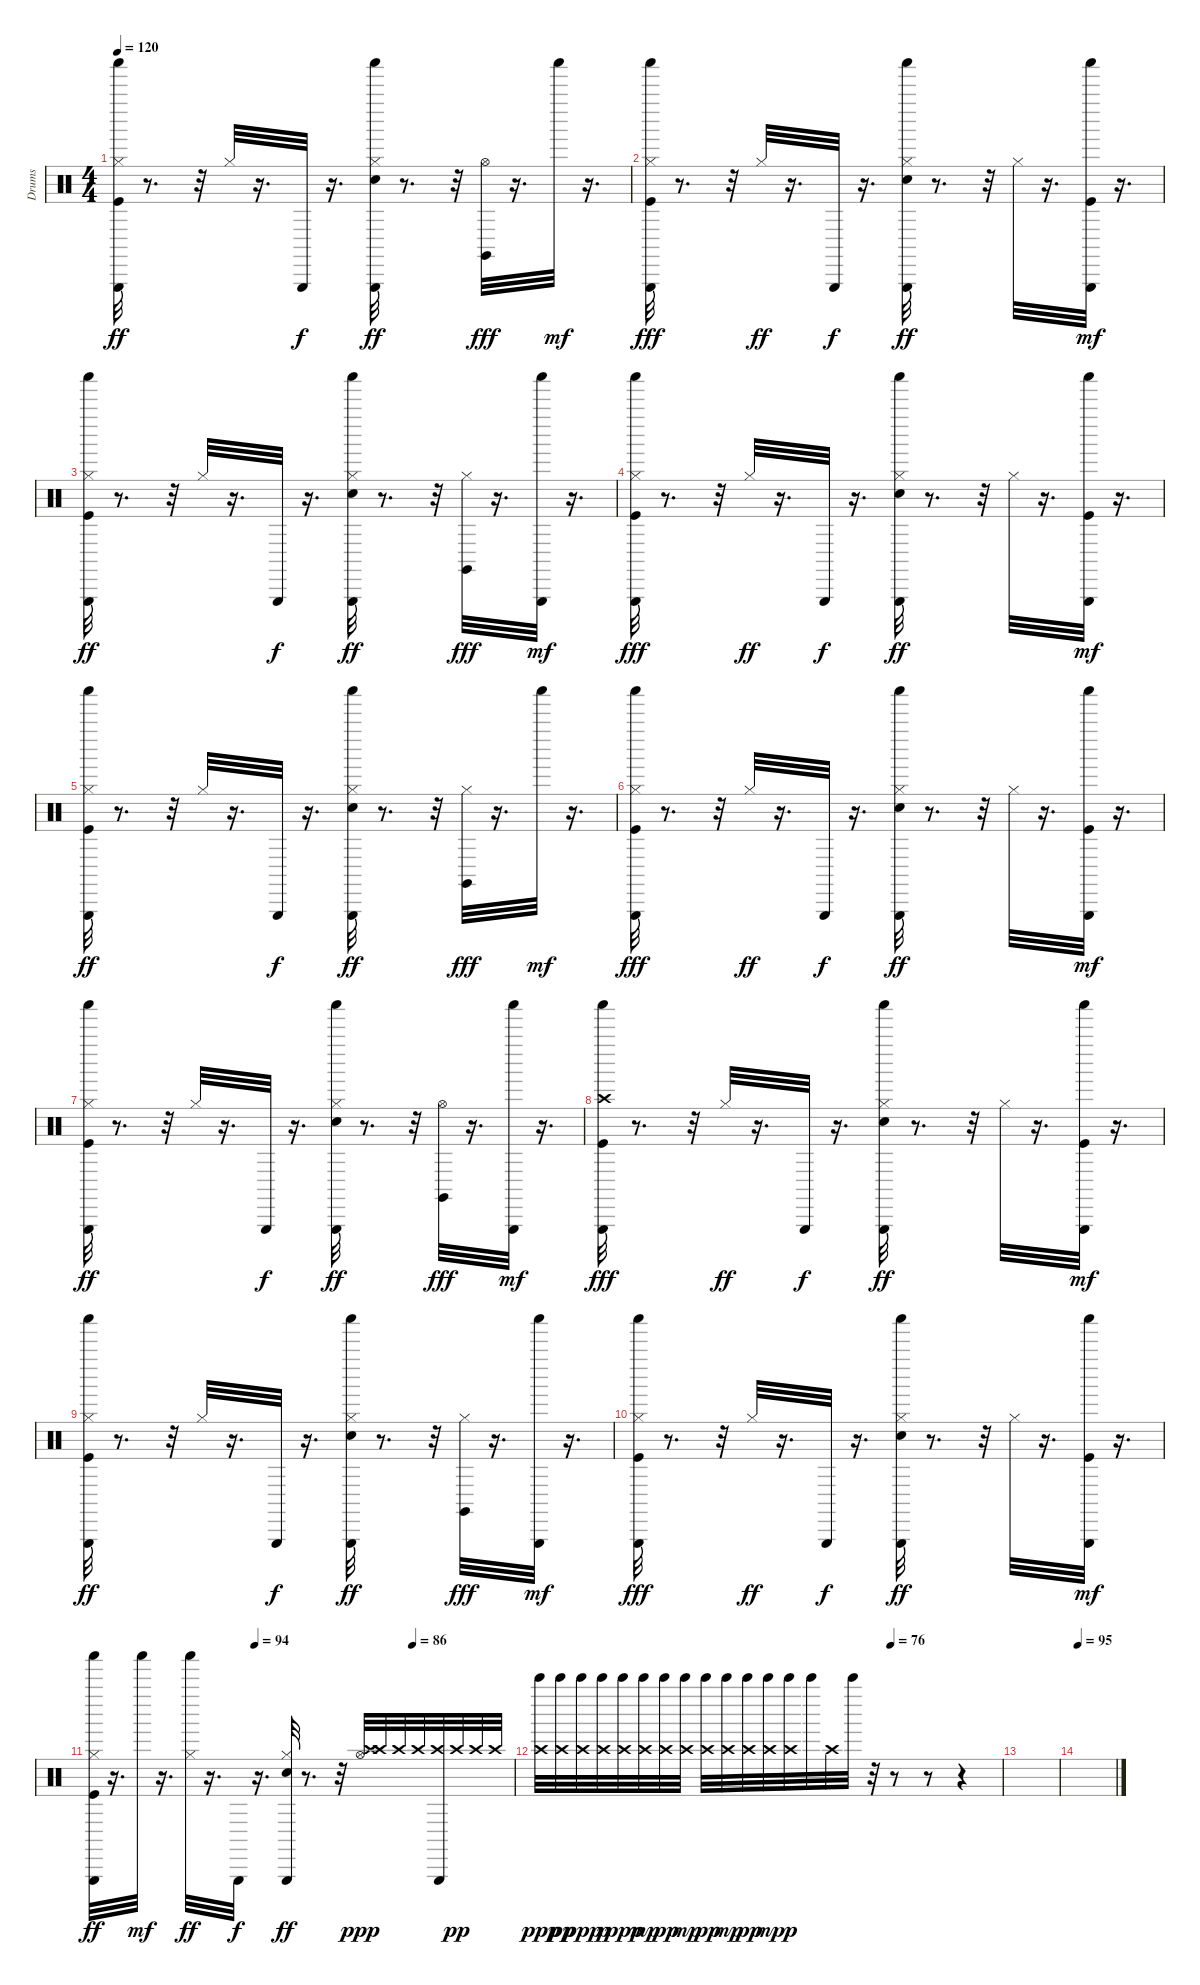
\track ("Drums" "Drums") {instrument percussion}
\staff {score}
\articulation defaults
\ts (4 4)
\tempo 120
\clef neutral
\ks c
("Shaker (hit)" "Triangle (hit)" "Kick (hit)" "Hi-Hat (closed)").32{dy ff} r.8{d} r.32 "Hi-Hat (closed)".32 r.16{d} "Triangle (hit)".32{dy f} r.16{d} ("Shaker (hit)" "Triangle (hit)" "Electric Snare (hit)" "Hi-Hat (closed)").32{dy ff} r.8{d} r.32 ("Hi-Hat (open)" "Claves (hit)").32{dy fff} r.16{d} "Shaker (hit)".32{dy mf} r.16{d} |
("Shaker (hit)" "Triangle (hit)" "Hi-Hat (closed)" "Kick (hit)").32{dy fff} r.8{d} r.32 "Hi-Hat (closed)".32{dy ff} r.16{d} "Triangle (hit)".32{dy f} r.16{d} ("Shaker (hit)" "Triangle (hit)" "Electric Snare (hit)" "Hi-Hat (closed)").32{dy ff} r.8{d} r.32 "Hi-Hat (closed)".32 r.16{d} ("Kick (hit)" "Shaker (hit)" "Triangle (hit)").32{dy mf} r.16{d} |
("Shaker (hit)" "Triangle (hit)" "Kick (hit)" "Hi-Hat (closed)").32{dy ff} r.8{d} r.32 "Hi-Hat (closed)".32 r.16{d} "Triangle (hit)".32{dy f} r.16{d} ("Shaker (hit)" "Triangle (hit)" "Electric Snare (hit)" "Hi-Hat (closed)").32{dy ff} r.8{d} r.32 ("Hi-Hat (closed)" "Claves (hit)").32{dy fff} r.16{d} ("Shaker (hit)" "Triangle (hit)").32{dy mf} r.16{d} |
("Shaker (hit)" "Triangle (hit)" "Hi-Hat (closed)" "Kick (hit)").32{dy fff} r.8{d} r.32 "Hi-Hat (closed)".32{dy ff} r.16{d} "Triangle (hit)".32{dy f} r.16{d} ("Shaker (hit)" "Triangle (hit)" "Electric Snare (hit)" "Hi-Hat (closed)").32{dy ff} r.8{d} r.32 "Hi-Hat (closed)".32 r.16{d} ("Kick (hit)" "Shaker (hit)" "Triangle (hit)").32{dy mf} r.16{d} |
("Shaker (hit)" "Triangle (hit)" "Kick (hit)" "Hi-Hat (closed)").32{dy ff} r.8{d} r.32 "Hi-Hat (closed)".32 r.16{d} "Triangle (hit)".32{dy f} r.16{d} ("Shaker (hit)" "Triangle (hit)" "Electric Snare (hit)" "Hi-Hat (closed)").32{dy ff} r.8{d} r.32 ("Hi-Hat (closed)" "Claves (hit)").32{dy fff} r.16{d} "Shaker (hit)".32{dy mf} r.16{d} |
("Shaker (hit)" "Triangle (hit)" "Hi-Hat (closed)" "Kick (hit)").32{dy fff} r.8{d} r.32 "Hi-Hat (closed)".32{dy ff} r.16{d} "Triangle (hit)".32{dy f} r.16{d} ("Shaker (hit)" "Triangle (hit)" "Electric Snare (hit)" "Hi-Hat (closed)").32{dy ff} r.8{d} r.32 "Hi-Hat (closed)".32 r.16{d} ("Kick (hit)" "Shaker (hit)" "Triangle (hit)").32{dy mf} r.16{d} |
("Shaker (hit)" "Triangle (hit)" "Kick (hit)" "Hi-Hat (closed)").32{dy ff} r.8{d} r.32 "Hi-Hat (closed)".32 r.16{d} "Triangle (hit)".32{dy f} r.16{d} ("Shaker (hit)" "Triangle (hit)" "Electric Snare (hit)" "Hi-Hat (closed)").32{dy ff} r.8{d} r.32 ("Hi-Hat (open)" "Claves (hit)").32{dy fff} r.16{d} ("Shaker (hit)" "Triangle (hit)").32{dy mf} r.16{d} |
("Crash high (hit)" "Shaker (hit)" "Triangle (hit)" "Kick (hit)").32{dy fff} r.8{d} r.32 "Hi-Hat (closed)".32{dy ff} r.16{d} "Triangle (hit)".32{dy f} r.16{d} ("Shaker (hit)" "Triangle (hit)" "Electric Snare (hit)" "Hi-Hat (closed)").32{dy ff} r.8{d} r.32 "Hi-Hat (closed)".32 r.16{d} ("Kick (hit)" "Shaker (hit)" "Triangle (hit)").32{dy mf} r.16{d} |
("Shaker (hit)" "Triangle (hit)" "Kick (hit)" "Hi-Hat (closed)").32{dy ff} r.8{d} r.32 "Hi-Hat (closed)".32 r.16{d} "Triangle (hit)".32{dy f} r.16{d} ("Shaker (hit)" "Triangle (hit)" "Electric Snare (hit)" "Hi-Hat (closed)").32{dy ff} r.8{d} r.32 ("Hi-Hat (closed)" "Claves (hit)").32{dy fff} r.16{d} ("Shaker (hit)" "Triangle (hit)").32{dy mf} r.16{d} |
("Shaker (hit)" "Triangle (hit)" "Hi-Hat (closed)" "Kick (hit)").32{dy fff} r.8{d} r.32 "Hi-Hat (closed)".32{dy ff} r.16{d} "Triangle (hit)".32{dy f} r.16{d} ("Shaker (hit)" "Triangle (hit)" "Electric Snare (hit)" "Hi-Hat (closed)").32{dy ff} r.8{d} r.32 "Hi-Hat (closed)".32 r.16{d} ("Kick (hit)" "Shaker (hit)" "Triangle (hit)").32{dy mf} r.16{d} |
\tempo (94 0.3854166666666667)
\tempo (86 0.7604166666666666)
("Shaker (hit)" "Triangle (hit)" "Kick (hit)" "Hi-Hat (closed)").32{dy ff} r.16{d} "Shaker (hit)".32{dy mf} r.16{d} ("Shaker (hit)" "Hi-Hat (closed)").32{dy ff} r.16{d} "Triangle (hit)".32{dy f} r.16{d} ("Triangle (hit)" "Electric Snare (hit)" "Hi-Hat (closed)").32{dy ff} r.8{d} r.32 ("Hi-Hat (open)" "Crash high (hit)").32{dy ppp} "Crash high (hit)".32 "Crash high (hit)".32 "Crash high (hit)".32 ("Crash high (hit)" "Triangle (hit)").32 "Crash high (hit)".32{dy pp} "Crash high (hit)".32 "Crash high (hit)".32 |
\tempo (76 0.7604166666666666)
("Crash high (hit)" "Bell Tree (hit)").32{dy ppp} ("Bell Tree (hit)" "Crash high (hit)").32{dy pp} ("Crash high (hit)" "Bell Tree (hit)").32{dy ppp} ("Bell Tree (hit)" "Crash high (hit)").32{dy p} ("Crash high (hit)" "Bell Tree (hit)").32{dy ppp} ("Bell Tree (hit)" "Crash high (hit)").32{dy mp} ("Crash high (hit)" "Bell Tree (hit)").32{dy pp} ("Bell Tree (hit)" "Crash high (hit)").32{dy mp} ("Crash high (hit)" "Bell Tree (hit)").32{dy pp} ("Bell Tree (hit)" "Crash high (hit)").32{dy mp} ("Crash high (hit)" "Bell Tree (hit)").32{dy pp} ("Bell Tree (hit)" "Crash high (hit)").32{dy mp} ("Crash high (hit)" "Bell Tree (hit)").32{dy p} "Bell Tree (hit)".32 "Crash high (hit)".32 "Bell Tree (hit)".32 r.32 r.8 r.8 r.4 |
|
\tempo 95
